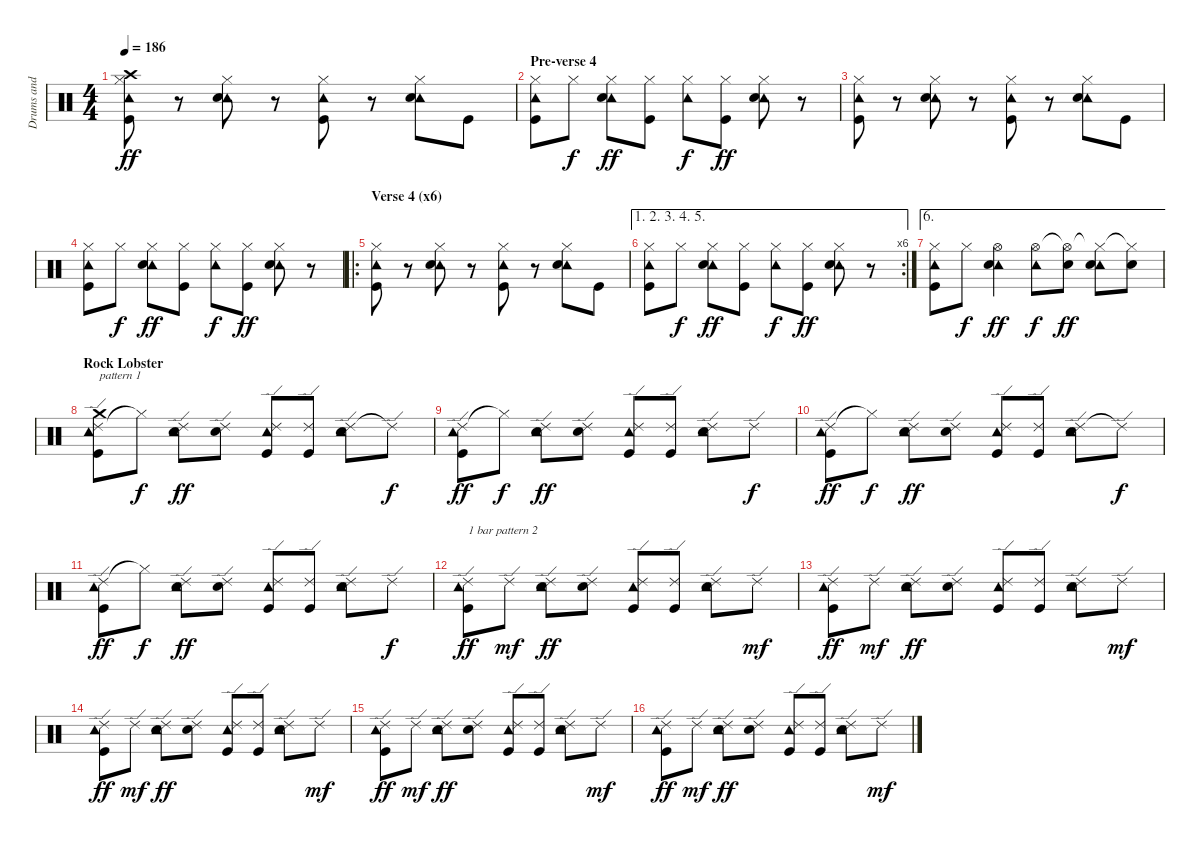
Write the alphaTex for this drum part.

\track ("Drums and Percs" "Drums and ") {instrument percussion}
\staff {score}
\articulation defaults
\ts (4 4)
\tempo 186
\clef neutral
\ks c
("Hi-Hat (closed)" "Tambourine (hit)" "Crash high (hit)" "Kick (hit)").8{dy ff} r.8 ("Hi-Hat (closed)" "Tambourine (hit)" "Electric Snare (hit)").8 r.8 ("Hi-Hat (closed)" "Tambourine (hit)" "Kick (hit)").8 r.8 ("Hi-Hat (closed)" "Tambourine (hit)" "Electric Snare (hit)").8 "Kick (hit)".8 |
\section ("" "Pre-verse 4")
("Hi-Hat (closed)" "Tambourine (hit)" "Kick (hit)").8 "Hi-Hat (closed)".8{dy f} ("Hi-Hat (closed)" "Tambourine (hit)" "Electric Snare (hit)").8{dy ff} ("Hi-Hat (closed)" "Kick (hit)").8 ("Hi-Hat (closed)" "Tambourine (hit)").8{dy f} ("Hi-Hat (closed)" "Kick (hit)").8{dy ff} ("Hi-Hat (closed)" "Tambourine (hit)" "Electric Snare (hit)").8 r.8 |
("Hi-Hat (closed)" "Tambourine (hit)" "Kick (hit)").8 r.8 ("Hi-Hat (closed)" "Tambourine (hit)" "Electric Snare (hit)").8 r.8 ("Hi-Hat (closed)" "Tambourine (hit)" "Kick (hit)").8 r.8 ("Hi-Hat (closed)" "Tambourine (hit)" "Electric Snare (hit)").8 "Kick (hit)".8 |
("Hi-Hat (closed)" "Tambourine (hit)" "Kick (hit)").8 "Hi-Hat (closed)".8{dy f} ("Hi-Hat (closed)" "Tambourine (hit)" "Electric Snare (hit)").8{dy ff} ("Hi-Hat (closed)" "Kick (hit)").8 ("Hi-Hat (closed)" "Tambourine (hit)").8{dy f} ("Hi-Hat (closed)" "Kick (hit)").8{dy ff} ("Hi-Hat (closed)" "Tambourine (hit)" "Electric Snare (hit)").8 r.8 |
\ro
\section ("" "Verse 4 (x6)")
("Hi-Hat (closed)" "Tambourine (hit)" "Kick (hit)").8 r.8 ("Hi-Hat (closed)" "Tambourine (hit)" "Electric Snare (hit)").8 r.8 ("Hi-Hat (closed)" "Tambourine (hit)" "Kick (hit)").8 r.8 ("Hi-Hat (closed)" "Tambourine (hit)" "Electric Snare (hit)").8 "Kick (hit)".8 |
\ae (1 2 3 4 5)
\rc 6
("Hi-Hat (closed)" "Tambourine (hit)" "Kick (hit)").8 "Hi-Hat (closed)".8{dy f} ("Hi-Hat (closed)" "Tambourine (hit)" "Electric Snare (hit)").8{dy ff} ("Hi-Hat (closed)" "Kick (hit)").8 ("Hi-Hat (closed)" "Tambourine (hit)").8{dy f} ("Hi-Hat (closed)" "Kick (hit)").8{dy ff} ("Hi-Hat (closed)" "Tambourine (hit)" "Electric Snare (hit)").8 r.8 |
\ae 6
("Hi-Hat (closed)" "Tambourine (hit)" "Kick (hit)").8 "Hi-Hat (closed)".8{dy f} ("Hi-Hat (open)" "Tambourine (hit)" "Electric Snare (hit)").4{dy ff} ("Hi-Hat (open)" "Tambourine (hit)").8{dy f} ("Hi-Hat (open)"{t} "Electric Snare (hit)").8{dy ff} ("Hi-Hat (closed)"{t} "Tambourine (hit)" "Electric Snare (hit)").8 ("Hi-Hat (closed)"{t} "Electric Snare (hit)").8 |
\section ("" "Rock Lobster")
("Ride (edge) 2" "Tambourine (hit)" "Crash medium (hit)" "Kick (hit)").8{txt "pattern 1"} "Hi-Hat (closed)"{t}.8{dy f} ("Ride (edge) 2" "Tambourine (hit)" "Electric Snare (hit)").8{dy ff} ("Ride (edge) 2" "Electric Snare (hit)").8 ("Ride (edge) 2" "Tambourine (hit)" "Kick (hit)").8 ("Ride (edge) 2" "Kick (hit)").8 ("Ride (edge) 2" "Tambourine (hit)" "Electric Snare (hit)").8 "Ride (edge) 2"{t}.8{dy f} |
("Ride (edge) 2" "Tambourine (hit)" "Kick (hit)").8{dy ff} "Hi-Hat (closed)"{t}.8{dy f} ("Ride (edge) 2" "Tambourine (hit)" "Electric Snare (hit)").8{dy ff} ("Ride (edge) 2" "Electric Snare (hit)").8 ("Ride (edge) 2" "Tambourine (hit)" "Kick (hit)").8 ("Ride (edge) 2" "Kick (hit)").8 ("Ride (edge) 2" "Tambourine (hit)" "Electric Snare (hit)").8 "Ride (edge) 2".8{dy f} |
("Ride (edge) 2" "Tambourine (hit)" "Kick (hit)").8{dy ff} "Hi-Hat (closed)"{t}.8{dy f} ("Ride (edge) 2" "Tambourine (hit)" "Electric Snare (hit)").8{dy ff} ("Ride (edge) 2" "Electric Snare (hit)").8 ("Ride (edge) 2" "Tambourine (hit)" "Kick (hit)").8 ("Ride (edge) 2" "Kick (hit)").8 ("Ride (edge) 2" "Tambourine (hit)" "Electric Snare (hit)").8 "Ride (edge) 2"{t}.8{dy f} |
("Ride (edge) 2" "Tambourine (hit)" "Kick (hit)").8{dy ff} "Hi-Hat (closed)"{t}.8{dy f} ("Ride (edge) 2" "Tambourine (hit)" "Electric Snare (hit)").8{dy ff} ("Ride (edge) 2" "Electric Snare (hit)").8 ("Ride (edge) 2" "Tambourine (hit)" "Kick (hit)").8 ("Ride (edge) 2" "Kick (hit)").8 ("Ride (edge) 2" "Tambourine (hit)" "Electric Snare (hit)").8 "Ride (edge) 2".8{dy f} |
("Ride (edge) 2" "Tambourine (hit)" "Kick (hit)").8{txt "1 bar pattern 2" dy ff} "Ride (edge) 2".8{dy mf} ("Ride (edge) 2" "Tambourine (hit)" "Electric Snare (hit)").8{dy ff} ("Ride (edge) 2" "Electric Snare (hit)").8 ("Ride (edge) 2" "Tambourine (hit)" "Kick (hit)").8 ("Ride (edge) 2" "Kick (hit)").8 ("Ride (edge) 2" "Tambourine (hit)" "Electric Snare (hit)").8 "Ride (edge) 2".8{dy mf} |
("Ride (edge) 2" "Tambourine (hit)" "Kick (hit)").8{dy ff} "Ride (edge) 2".8{dy mf} ("Ride (edge) 2" "Tambourine (hit)" "Electric Snare (hit)").8{dy ff} ("Ride (edge) 2" "Electric Snare (hit)").8 ("Ride (edge) 2" "Tambourine (hit)" "Kick (hit)").8 ("Ride (edge) 2" "Kick (hit)").8 ("Ride (edge) 2" "Tambourine (hit)" "Electric Snare (hit)").8 "Ride (edge) 2".8{dy mf} |
("Ride (edge) 2" "Tambourine (hit)" "Kick (hit)").8{dy ff} "Ride (edge) 2".8{dy mf} ("Ride (edge) 2" "Tambourine (hit)" "Electric Snare (hit)").8{dy ff} ("Ride (edge) 2" "Electric Snare (hit)").8 ("Ride (edge) 2" "Tambourine (hit)" "Kick (hit)").8 ("Ride (edge) 2" "Kick (hit)").8 ("Ride (edge) 2" "Tambourine (hit)" "Electric Snare (hit)").8 "Ride (edge) 2".8{dy mf} |
("Ride (edge) 2" "Tambourine (hit)" "Kick (hit)").8{dy ff} "Ride (edge) 2".8{dy mf} ("Ride (edge) 2" "Tambourine (hit)" "Electric Snare (hit)").8{dy ff} ("Ride (edge) 2" "Electric Snare (hit)").8 ("Ride (edge) 2" "Tambourine (hit)" "Kick (hit)").8 ("Ride (edge) 2" "Kick (hit)").8 ("Ride (edge) 2" "Tambourine (hit)" "Electric Snare (hit)").8 "Ride (edge) 2".8{dy mf} |
("Ride (edge) 2" "Tambourine (hit)" "Kick (hit)").8{dy ff} "Ride (edge) 2".8{dy mf} ("Ride (edge) 2" "Tambourine (hit)" "Electric Snare (hit)").8{dy ff} ("Ride (edge) 2" "Electric Snare (hit)").8 ("Ride (edge) 2" "Tambourine (hit)" "Kick (hit)").8 ("Ride (edge) 2" "Kick (hit)").8 ("Ride (edge) 2" "Tambourine (hit)" "Electric Snare (hit)").8 "Ride (edge) 2".8{dy mf}
